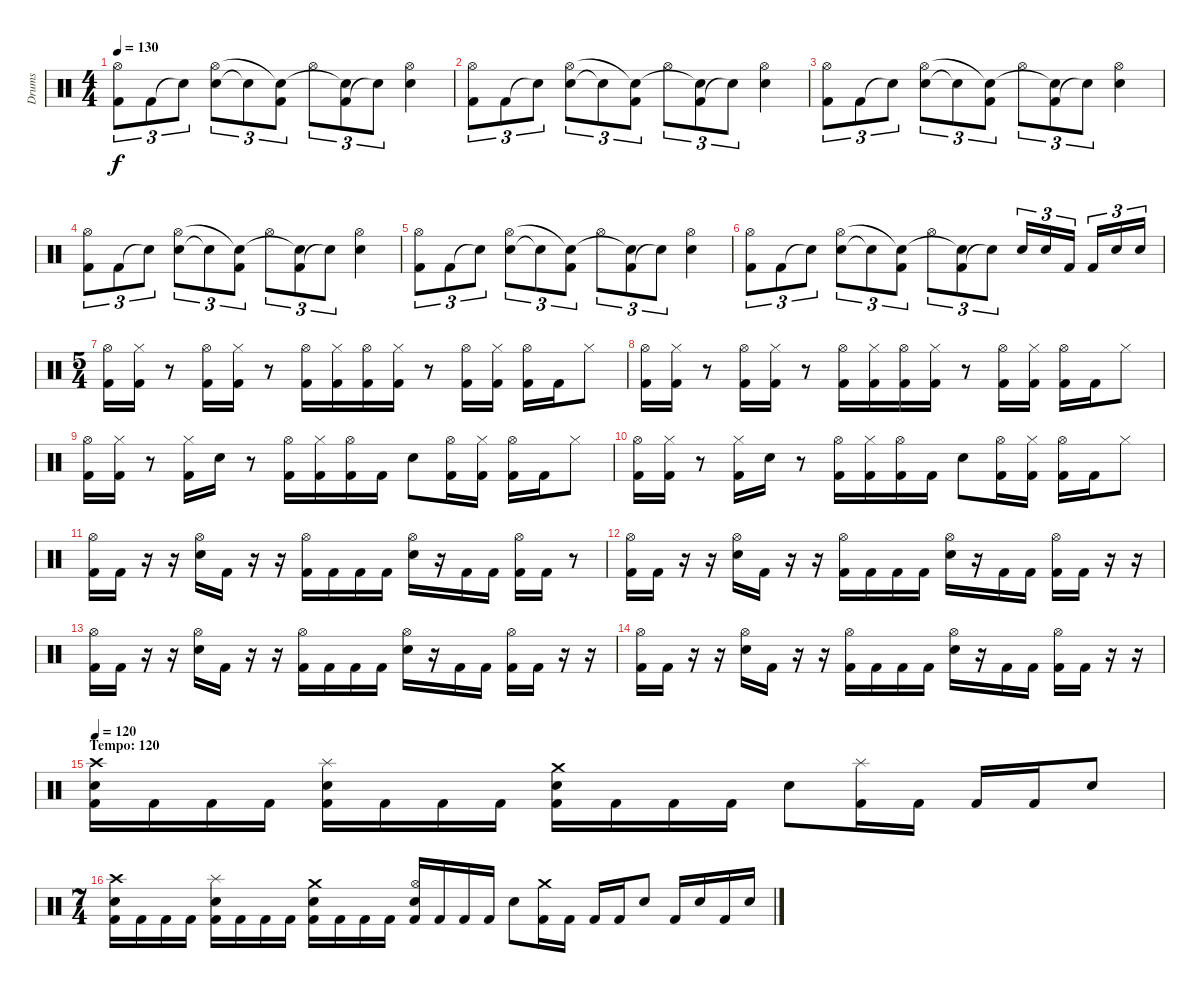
\track ("Drums" "Drums") {instrument percussion}
\staff {score}
\articulation defaults
\ts (4 4)
\tempo 130
\clef neutral
\ks c
("Kick (hit) 2" "Hi-Hat (open)").8{tu (3 2) dy f} "Kick (hit) 2".8{tu (3 2)} "Snare (hit)"{t}.8{tu (3 2)} ("Snare (hit) 2" "Hi-Hat (open)").8{tu (3 2)} "Snare (hit)"{t}.8{tu (3 2)} ("Kick (hit) 2" "Snare (hit)"{t}).8{tu (3 2)} "Hi-Hat (open)".8{tu (3 2)} ("Kick (hit) 2" "Snare (hit)"{t}).8{tu (3 2)} "Snare (hit)"{t}.8{tu (3 2)} ("Snare (hit) 2" "Hi-Hat (open)").4 |
("Kick (hit) 2" "Hi-Hat (open)").8{tu (3 2)} "Kick (hit) 2".8{tu (3 2)} "Snare (hit)"{t}.8{tu (3 2)} ("Snare (hit) 2" "Hi-Hat (open)").8{tu (3 2)} "Snare (hit)"{t}.8{tu (3 2)} ("Kick (hit) 2" "Snare (hit)"{t}).8{tu (3 2)} "Hi-Hat (open)".8{tu (3 2)} ("Kick (hit) 2" "Snare (hit)"{t}).8{tu (3 2)} "Snare (hit)"{t}.8{tu (3 2)} ("Snare (hit) 2" "Hi-Hat (open)").4 |
("Kick (hit) 2" "Hi-Hat (open)").8{tu (3 2)} "Kick (hit) 2".8{tu (3 2)} "Snare (hit)"{t}.8{tu (3 2)} ("Snare (hit) 2" "Hi-Hat (open)").8{tu (3 2)} "Snare (hit)"{t}.8{tu (3 2)} ("Kick (hit) 2" "Snare (hit)"{t}).8{tu (3 2)} "Hi-Hat (open)".8{tu (3 2)} ("Kick (hit) 2" "Snare (hit)"{t}).8{tu (3 2)} "Snare (hit)"{t}.8{tu (3 2)} ("Snare (hit) 2" "Hi-Hat (open)").4 |
("Kick (hit) 2" "Hi-Hat (open)").8{tu (3 2)} "Kick (hit) 2".8{tu (3 2)} "Snare (hit)"{t}.8{tu (3 2)} ("Snare (hit) 2" "Hi-Hat (open)").8{tu (3 2)} "Snare (hit)"{t}.8{tu (3 2)} ("Kick (hit) 2" "Snare (hit)"{t}).8{tu (3 2)} "Hi-Hat (open)".8{tu (3 2)} ("Kick (hit) 2" "Snare (hit)"{t}).8{tu (3 2)} "Snare (hit)"{t}.8{tu (3 2)} ("Snare (hit) 2" "Hi-Hat (open)").4 |
("Kick (hit) 2" "Hi-Hat (open)").8{tu (3 2)} "Kick (hit) 2".8{tu (3 2)} "Snare (hit)"{t}.8{tu (3 2)} ("Snare (hit) 2" "Hi-Hat (open)").8{tu (3 2)} "Snare (hit)"{t}.8{tu (3 2)} ("Kick (hit) 2" "Snare (hit)"{t}).8{tu (3 2)} "Hi-Hat (open)".8{tu (3 2)} ("Kick (hit) 2" "Snare (hit)"{t}).8{tu (3 2)} "Snare (hit)"{t}.8{tu (3 2)} ("Snare (hit) 2" "Hi-Hat (open)").4 |
("Kick (hit) 2" "Hi-Hat (open)").8{tu (3 2)} "Kick (hit) 2".8{tu (3 2)} "Snare (hit)"{t}.8{tu (3 2)} ("Snare (hit) 2" "Hi-Hat (open)").8{tu (3 2)} "Snare (hit)"{t}.8{tu (3 2)} ("Kick (hit) 2" "Snare (hit)"{t}).8{tu (3 2)} "Hi-Hat (open)".8{tu (3 2)} ("Kick (hit) 2" "Snare (hit)"{t}).8{tu (3 2)} "Snare (hit)"{t}.8{tu (3 2)} "Snare (hit) 2".16{tu (3 2)} "Snare (hit) 2".16{tu (3 2)} "Kick (hit) 2".16{tu (3 2)} "Kick (hit) 2".16{tu (3 2)} "Snare (hit) 2".16{tu (3 2)} "Snare (hit) 2".16{tu (3 2)} |
\ts (5 4)
("Kick (hit) 2" "Hi-Hat (open)").16 ("Kick (hit) 2" "Hi-Hat (closed)").16 r.8 ("Kick (hit) 2" "Hi-Hat (open)").16 ("Kick (hit) 2" "Hi-Hat (closed)").16 r.8 ("Kick (hit) 2" "Hi-Hat (open)").16 ("Kick (hit) 2" "Hi-Hat (closed)").16 ("Kick (hit) 2" "Hi-Hat (open)").16 ("Kick (hit) 2" "Hi-Hat (closed)").16 r.8 ("Kick (hit) 2" "Hi-Hat (open)").16 ("Kick (hit) 2" "Hi-Hat (closed)").16 ("Kick (hit) 2" "Hi-Hat (open)").16 "Kick (hit) 2".16 "Hi-Hat (closed)".8 |
("Kick (hit) 2" "Hi-Hat (open)").16 ("Kick (hit) 2" "Hi-Hat (closed)").16 r.8 ("Kick (hit) 2" "Hi-Hat (open)").16 ("Kick (hit) 2" "Hi-Hat (closed)").16 r.8 ("Kick (hit) 2" "Hi-Hat (open)").16 ("Kick (hit) 2" "Hi-Hat (closed)").16 ("Kick (hit) 2" "Hi-Hat (open)").16 ("Kick (hit) 2" "Hi-Hat (closed)").16 r.8 ("Kick (hit) 2" "Hi-Hat (open)").16 ("Kick (hit) 2" "Hi-Hat (closed)").16 ("Kick (hit) 2" "Hi-Hat (open)").16 "Kick (hit) 2".16 "Hi-Hat (closed)".8 |
("Kick (hit) 2" "Hi-Hat (open)").16 ("Kick (hit) 2" "Hi-Hat (closed)").16 r.8 ("Kick (hit) 2" "Hi-Hat (closed)").16 "Snare (hit) 2".16 r.8 ("Kick (hit) 2" "Hi-Hat (open)").16 ("Kick (hit) 2" "Hi-Hat (closed)").16 ("Kick (hit) 2" "Hi-Hat (open)").16 "Kick (hit) 2".16 "Snare (hit) 2".8 ("Kick (hit) 2" "Hi-Hat (open)").16 ("Kick (hit) 2" "Hi-Hat (closed)").16 ("Kick (hit) 2" "Hi-Hat (open)").16 "Kick (hit) 2".16 "Hi-Hat (closed)".8 |
("Kick (hit) 2" "Hi-Hat (open)").16 ("Kick (hit) 2" "Hi-Hat (closed)").16 r.8 ("Kick (hit) 2" "Hi-Hat (closed)").16 "Snare (hit) 2".16 r.8 ("Kick (hit) 2" "Hi-Hat (open)").16 ("Kick (hit) 2" "Hi-Hat (closed)").16 ("Kick (hit) 2" "Hi-Hat (open)").16 "Kick (hit) 2".16 "Snare (hit) 2".8 ("Kick (hit) 2" "Hi-Hat (open)").16 ("Kick (hit) 2" "Hi-Hat (closed)").16 ("Kick (hit) 2" "Hi-Hat (open)").16 "Kick (hit) 2".16 "Hi-Hat (closed)".8 |
("Kick (hit) 2" "Hi-Hat (open)").16 "Kick (hit) 2".16 r.16 r.16 ("Snare (hit) 2" "Hi-Hat (open)").16 "Kick (hit) 2".16 r.16 r.16 ("Kick (hit) 2" "Hi-Hat (open)").16 "Kick (hit) 2".16 "Kick (hit) 2".16 "Kick (hit) 2".16 ("Snare (hit) 2" "Hi-Hat (open)").16 r.16 "Kick (hit) 2".16 "Kick (hit) 2".16 ("Kick (hit) 2" "Hi-Hat (open)").16 "Kick (hit) 2".16 r.8 |
("Kick (hit) 2" "Hi-Hat (open)").16 "Kick (hit) 2".16 r.16 r.16 ("Snare (hit) 2" "Hi-Hat (open)").16 "Kick (hit) 2".16 r.16 r.16 ("Kick (hit) 2" "Hi-Hat (open)").16 "Kick (hit) 2".16 "Kick (hit) 2".16 "Kick (hit) 2".16 ("Snare (hit) 2" "Hi-Hat (open)").16 r.16 "Kick (hit) 2".16 "Kick (hit) 2".16 ("Kick (hit) 2" "Hi-Hat (open)").16 "Kick (hit) 2".16 r.16 r.16 |
("Kick (hit) 2" "Hi-Hat (open)").16 "Kick (hit) 2".16 r.16 r.16 ("Snare (hit) 2" "Hi-Hat (open)").16 "Kick (hit) 2".16 r.16 r.16 ("Kick (hit) 2" "Hi-Hat (open)").16 "Kick (hit) 2".16 "Kick (hit) 2".16 "Kick (hit) 2".16 ("Snare (hit) 2" "Hi-Hat (open)").16 r.16 "Kick (hit) 2".16 "Kick (hit) 2".16 ("Kick (hit) 2" "Hi-Hat (open)").16 "Kick (hit) 2".16 r.16 r.16 |
("Kick (hit) 2" "Hi-Hat (open)").16 "Kick (hit) 2".16 r.16 r.16 ("Snare (hit) 2" "Hi-Hat (open)").16 "Kick (hit) 2".16 r.16 r.16 ("Kick (hit) 2" "Hi-Hat (open)").16 "Kick (hit) 2".16 "Kick (hit) 2".16 "Kick (hit) 2".16 ("Snare (hit) 2" "Hi-Hat (open)").16 r.16 "Kick (hit) 2".16 "Kick (hit) 2".16 ("Kick (hit) 2" "Hi-Hat (open)").16 "Kick (hit) 2".16 r.16 r.16 |
\section ("" "Tempo: 120")
\tempo 120
("Kick (hit) 2" "Snare (hit) 2" "Crash high (hit)").16 "Kick (hit) 2".16 "Kick (hit) 2".16 "Kick (hit) 2".16 ("Kick (hit) 2" "Snare (hit) 2" "Splash (hit)").16 "Kick (hit) 2".16 "Kick (hit) 2".16 "Kick (hit) 2".16 ("Kick (hit) 2" "Snare (hit) 2" "Crash medium (hit)").16 "Kick (hit) 2".16 "Kick (hit) 2".16 "Kick (hit) 2".16 "Snare (hit) 2".8 ("Kick (hit) 2" "Splash (hit)").16 "Kick (hit) 2".16 "Kick (hit) 2".16 "Kick (hit) 2".16 "Snare (hit) 2".8 |
\ts (7 4)
("Kick (hit) 2" "Snare (hit) 2" "Crash high (hit)").16 "Kick (hit) 2".16 "Kick (hit) 2".16 "Kick (hit) 2".16 ("Kick (hit) 2" "Snare (hit) 2" "Splash (hit)").16 "Kick (hit) 2".16 "Kick (hit) 2".16 "Kick (hit) 2".16 ("Kick (hit) 2" "Snare (hit) 2" "Crash medium (hit)").16 "Kick (hit) 2".16 "Kick (hit) 2".16 "Kick (hit) 2".16 ("Kick (hit) 2" "Snare (hit) 2" "Hi-Hat (open)").16 "Kick (hit) 2".16 "Kick (hit) 2".16 "Kick (hit) 2".16 "Snare (hit) 2".8 ("Kick (hit) 2" "Crash medium (hit)").16 "Kick (hit) 2".16 "Kick (hit) 2".16 "Kick (hit) 2".16 "Snare (hit) 2".8 "Kick (hit) 2".16 "Snare (hit) 2".16 "Kick (hit) 2".16 "Snare (hit) 2".16
